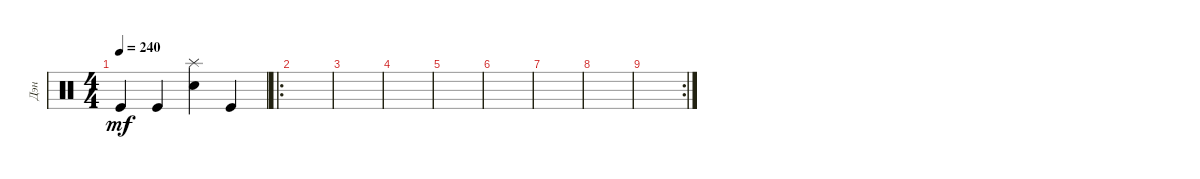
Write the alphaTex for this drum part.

\track ("Дэн" "Дэн") {instrument percussion}
\staff {score}
\articulation defaults
\ts (4 4)
\tempo 240
\clef neutral
\ks c "Kick (hit)".4{dy mf} "Kick (hit)".4
("Snare (hit) 2" "Splash (hit)").4 "Kick (hit)".4 |
\ro
|
|
|
|
|
|
|
\rc 2
